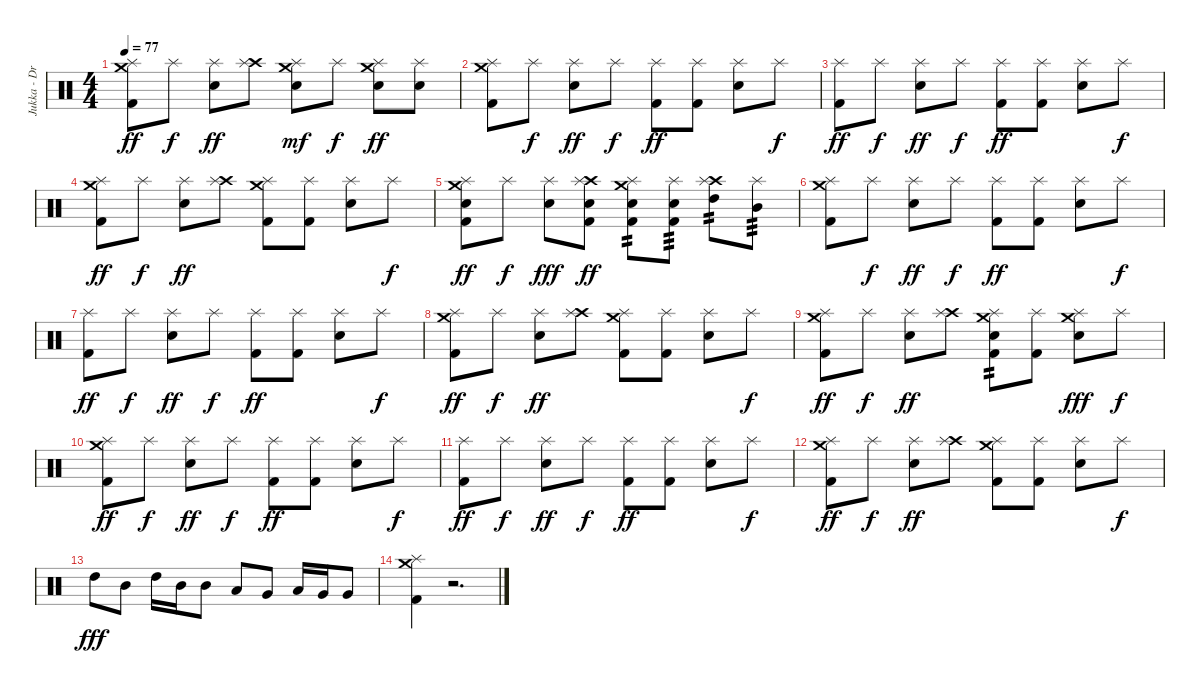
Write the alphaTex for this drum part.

\track ("Jukka - Drums" "Jukka - Dr") {instrument percussion}
\staff {score}
\articulation defaults
\ts (4 4)
\tempo 77
\clef neutral
\ks c
("Crash medium (hit)" "Splash (hit)" "Kick (hit) 2").8{dy ff} "Splash (hit)".8{dy f} ("Splash (hit)" "Electric Snare (hit)").8{dy ff} ("Crash high (hit)" "Splash (hit)").8 ("Crash medium (hit)" "Splash (hit)" "Electric Snare (hit)").8{dy mf} "Splash (hit)".8{dy f} ("Crash medium (hit)" "Splash (hit)" "Electric Snare (hit)").8{dy ff} ("Splash (hit)" "Electric Snare (hit)").8 |
("Crash medium (hit)" "Splash (hit)" "Kick (hit) 2").8 "Splash (hit)".8{dy f} ("Splash (hit)" "Electric Snare (hit)").8{dy ff} "Splash (hit)".8{dy f} ("Splash (hit)" "Kick (hit) 2").8{dy ff} ("Splash (hit)" "Kick (hit) 2").8 ("Splash (hit)" "Electric Snare (hit)").8 "Splash (hit)".8{dy f} |
("Splash (hit)" "Kick (hit) 2").8{dy ff} "Splash (hit)".8{dy f} ("Splash (hit)" "Electric Snare (hit)").8{dy ff} "Splash (hit)".8{dy f} ("Splash (hit)" "Kick (hit) 2").8{dy ff} ("Splash (hit)" "Kick (hit) 2").8 ("Splash (hit)" "Electric Snare (hit)").8 "Splash (hit)".8{dy f} |
("Crash medium (hit)" "Splash (hit)" "Kick (hit) 2").8{dy ff} "Splash (hit)".8{dy f} ("Splash (hit)" "Electric Snare (hit)").8{dy ff} ("Crash high (hit)" "Splash (hit)").8 ("Crash medium (hit)" "Splash (hit)" "Kick (hit) 2").8 ("Splash (hit)" "Kick (hit) 2").8 ("Splash (hit)" "Electric Snare (hit)").8 "Splash (hit)".8{dy f} |
("Crash medium (hit)" "Splash (hit)" "Electric Snare (hit)" "Kick (hit) 2").8{dy ff} "Splash (hit)".8{dy f} ("Splash (hit)" "Electric Snare (hit)").8{dy fff} ("Crash high (hit)" "Splash (hit)" "Electric Snare (hit)" "Kick (hit) 2").8{dy ff} ("Crash medium (hit)" "Splash (hit)" "Electric Snare (hit)" "Kick (hit) 2").8{tp 2} ("Splash (hit)" "Electric Snare (hit)" "Kick (hit) 2").8{tp 3} ("Crash high (hit)" "Splash (hit)" "High Tom (hit)").8{tp 2} ("Splash (hit)" "Mid Tom (hit)").8{tp 3} |
("Crash medium (hit)" "Splash (hit)" "Kick (hit) 2").8 "Splash (hit)".8{dy f} ("Splash (hit)" "Electric Snare (hit)").8{dy ff} "Splash (hit)".8{dy f} ("Splash (hit)" "Kick (hit) 2").8{dy ff} ("Splash (hit)" "Kick (hit) 2").8 ("Splash (hit)" "Electric Snare (hit)").8 "Splash (hit)".8{dy f} |
("Splash (hit)" "Kick (hit) 2").8{dy ff} "Splash (hit)".8{dy f} ("Splash (hit)" "Electric Snare (hit)").8{dy ff} "Splash (hit)".8{dy f} ("Splash (hit)" "Kick (hit) 2").8{dy ff} ("Splash (hit)" "Kick (hit) 2").8 ("Splash (hit)" "Electric Snare (hit)").8 "Splash (hit)".8{dy f} |
("Crash medium (hit)" "Splash (hit)" "Kick (hit) 2").8{dy ff} "Splash (hit)".8{dy f} ("Splash (hit)" "Electric Snare (hit)").8{dy ff} ("Crash high (hit)" "Splash (hit)").8 ("Crash medium (hit)" "Splash (hit)" "Kick (hit) 2").8 ("Splash (hit)" "Kick (hit) 2").8 ("Splash (hit)" "Electric Snare (hit)").8 "Splash (hit)".8{dy f} |
("Crash medium (hit)" "Splash (hit)" "Kick (hit) 2").8{dy ff} "Splash (hit)".8{dy f} ("Splash (hit)" "Electric Snare (hit)").8{dy ff} ("Crash high (hit)" "Splash (hit)").8 ("Crash medium (hit)" "Splash (hit)" "Electric Snare (hit)" "Kick (hit) 2").8{tp 2} ("Splash (hit)" "Kick (hit) 2").8 ("Crash medium (hit)" "Splash (hit)" "Electric Snare (hit)").8{dy fff} "Splash (hit)".8{dy f} |
("Crash medium (hit)" "Splash (hit)" "Kick (hit) 2").8{dy ff} "Splash (hit)".8{dy f} ("Splash (hit)" "Electric Snare (hit)").8{dy ff} "Splash (hit)".8{dy f} ("Splash (hit)" "Kick (hit) 2").8{dy ff} ("Splash (hit)" "Kick (hit) 2").8 ("Splash (hit)" "Electric Snare (hit)").8 "Splash (hit)".8{dy f} |
("Splash (hit)" "Kick (hit) 2").8{dy ff} "Splash (hit)".8{dy f} ("Splash (hit)" "Electric Snare (hit)").8{dy ff} "Splash (hit)".8{dy f} ("Splash (hit)" "Kick (hit) 2").8{dy ff} ("Splash (hit)" "Kick (hit) 2").8 ("Splash (hit)" "Electric Snare (hit)").8 "Splash (hit)".8{dy f} |
("Crash medium (hit)" "Splash (hit)" "Kick (hit) 2").8{dy ff} "Splash (hit)".8{dy f} ("Splash (hit)" "Electric Snare (hit)").8{dy ff} ("Crash high (hit)" "Splash (hit)").8 ("Crash medium (hit)" "Splash (hit)" "Kick (hit) 2").8 ("Splash (hit)" "Kick (hit) 2").8 ("Splash (hit)" "Electric Snare (hit)").8 "Splash (hit)".8{dy f} |
"High Tom (hit)".8{dy fff} "Mid Tom (hit)".8 "High Tom (hit)".16 "Mid Tom (hit)".16 "Mid Tom (hit)".8 "Low Tom (hit)".8 "Very Low Tom (hit)".8 "Low Tom (hit)".16 "Very Low Tom (hit)".16 "Very Low Tom (hit)".8 |
("Crash medium (hit)" "Splash (hit)" "Kick (hit) 2").4 r.2{d}
